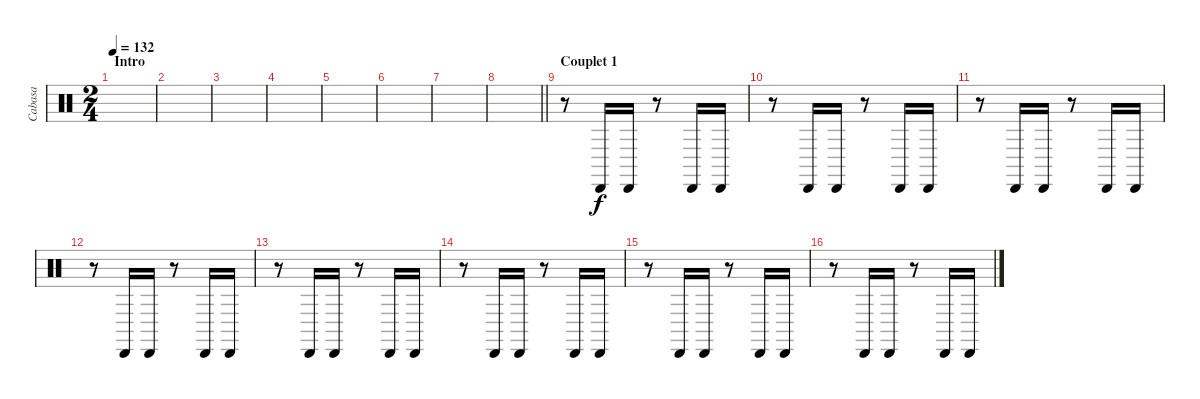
\track ("Cabasa" "Cabasa") {instrument percussion}
\staff {score}
\articulation defaults
\ts (2 4)
\section ("" "Intro")
\tempo 132
\clef neutral
\ks c
|
|
|
|
|
|
|
\barLineRight lightlight
|
\section ("" "Couplet 1")
r.8 "Cabasa (hit)".16 "Cabasa (hit)".16 r.8 "Cabasa (hit)".16 "Cabasa (hit)".16 |
r.8 "Cabasa (hit)".16 "Cabasa (hit)".16 r.8 "Cabasa (hit)".16 "Cabasa (hit)".16 |
r.8 "Cabasa (hit)".16 "Cabasa (hit)".16 r.8 "Cabasa (hit)".16 "Cabasa (hit)".16 |
r.8 "Cabasa (hit)".16 "Cabasa (hit)".16 r.8 "Cabasa (hit)".16 "Cabasa (hit)".16 |
r.8 "Cabasa (hit)".16 "Cabasa (hit)".16 r.8 "Cabasa (hit)".16 "Cabasa (hit)".16 |
r.8 "Cabasa (hit)".16 "Cabasa (hit)".16 r.8 "Cabasa (hit)".16 "Cabasa (hit)".16 |
r.8 "Cabasa (hit)".16 "Cabasa (hit)".16 r.8 "Cabasa (hit)".16 "Cabasa (hit)".16 |
r.8 "Cabasa (hit)".16 "Cabasa (hit)".16 r.8 "Cabasa (hit)".16 "Cabasa (hit)".16
